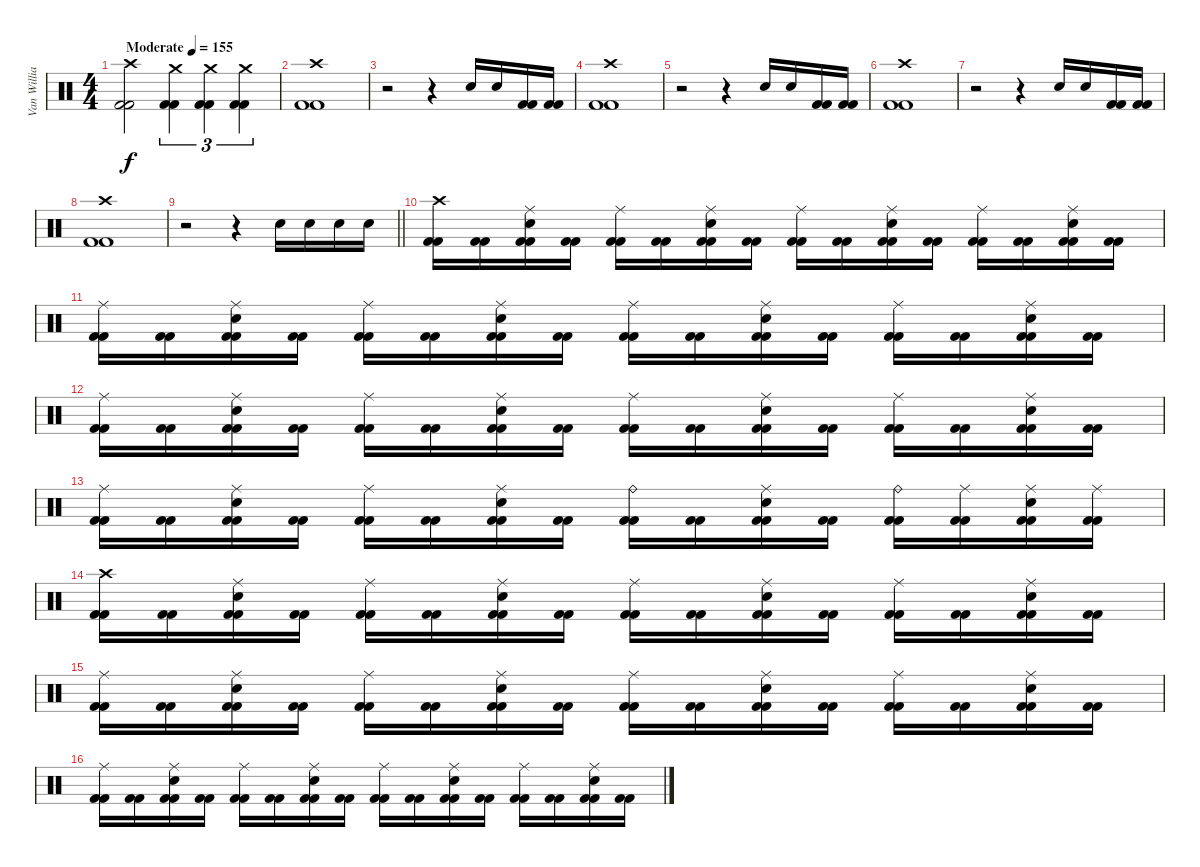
\track ("Van Williams" "Van Willia") {instrument percussion}
\staff {score}
\articulation defaults
\ts (4 4)
\tempo (155 "Moderate")
\clef neutral
\ks c
("Crash high (hit)" "Kick (hit) 2" "Kick (hit) 2").2{dy f} ("Crash medium (hit)" "Kick (hit) 2" "Kick (hit) 2").4{tu (3 2)} ("Crash medium (hit)" "Kick (hit) 2" "Kick (hit) 2").4{tu (3 2)} ("Crash medium (hit)" "Kick (hit) 2" "Kick (hit) 2").4{tu (3 2)} |
("Crash high (hit)" "Kick (hit) 2" "Kick (hit) 2").1 |
r.2 r.4 "Electric Snare (hit)".16 "Electric Snare (hit)".16 ("Kick (hit) 2" "Kick (hit) 2").16 ("Kick (hit) 2" "Kick (hit) 2").16 |
("Crash high (hit)" "Kick (hit) 2" "Kick (hit) 2").1 |
r.2 r.4 "Electric Snare (hit)".16 "Electric Snare (hit)".16 ("Kick (hit) 2" "Kick (hit) 2").16 ("Kick (hit) 2" "Kick (hit) 2").16 |
("Crash high (hit)" "Kick (hit) 2" "Kick (hit) 2").1 |
r.2 r.4 "Electric Snare (hit)".16 "Electric Snare (hit)".16 ("Kick (hit) 2" "Kick (hit) 2").16 ("Kick (hit) 2" "Kick (hit) 2").16 |
("Crash high (hit)" "Kick (hit) 2" "Kick (hit) 2").1 |
\barLineRight lightlight
r.2 r.4 "Electric Snare (hit)".16 "Electric Snare (hit)".16 "Electric Snare (hit)".16 "Electric Snare (hit)".16 |
("Crash high (hit)" "Kick (hit) 2" "Kick (hit) 2").16 ("Kick (hit) 2" "Kick (hit) 2").16 ("Ride (middle)" "Electric Snare (hit)" "Kick (hit) 2" "Kick (hit) 2").16 ("Kick (hit) 2" "Kick (hit) 2").16 ("Ride (middle)" "Kick (hit) 2" "Kick (hit) 2").16 ("Kick (hit) 2" "Kick (hit) 2").16 ("Ride (middle)" "Electric Snare (hit)" "Kick (hit) 2" "Kick (hit) 2").16 ("Kick (hit) 2" "Kick (hit) 2").16 ("Ride (middle)" "Kick (hit) 2" "Kick (hit) 2").16 ("Kick (hit) 2" "Kick (hit) 2").16 ("Ride (middle)" "Electric Snare (hit)" "Kick (hit) 2" "Kick (hit) 2").16 ("Kick (hit) 2" "Kick (hit) 2").16 ("Ride (middle)" "Kick (hit) 2" "Kick (hit) 2").16 ("Kick (hit) 2" "Kick (hit) 2").16 ("Ride (middle)" "Electric Snare (hit)" "Kick (hit) 2" "Kick (hit) 2").16 ("Kick (hit) 2" "Kick (hit) 2").16 |
("Ride (middle)" "Kick (hit) 2" "Kick (hit) 2").16 ("Kick (hit) 2" "Kick (hit) 2").16 ("Ride (middle)" "Electric Snare (hit)" "Kick (hit) 2" "Kick (hit) 2").16 ("Kick (hit) 2" "Kick (hit) 2").16 ("Ride (middle)" "Kick (hit) 2" "Kick (hit) 2").16 ("Kick (hit) 2" "Kick (hit) 2").16 ("Ride (middle)" "Electric Snare (hit)" "Kick (hit) 2" "Kick (hit) 2").16 ("Kick (hit) 2" "Kick (hit) 2").16 ("Ride (middle)" "Kick (hit) 2" "Kick (hit) 2").16 ("Kick (hit) 2" "Kick (hit) 2").16 ("Ride (middle)" "Electric Snare (hit)" "Kick (hit) 2" "Kick (hit) 2").16 ("Kick (hit) 2" "Kick (hit) 2").16 ("Ride (middle)" "Kick (hit) 2" "Kick (hit) 2").16 ("Kick (hit) 2" "Kick (hit) 2").16 ("Ride (middle)" "Electric Snare (hit)" "Kick (hit) 2" "Kick (hit) 2").16 ("Kick (hit) 2" "Kick (hit) 2").16 |
("Ride (middle)" "Kick (hit) 2" "Kick (hit) 2").16 ("Kick (hit) 2" "Kick (hit) 2").16 ("Ride (middle)" "Electric Snare (hit)" "Kick (hit) 2" "Kick (hit) 2").16 ("Kick (hit) 2" "Kick (hit) 2").16 ("Ride (middle)" "Kick (hit) 2" "Kick (hit) 2").16 ("Kick (hit) 2" "Kick (hit) 2").16 ("Ride (middle)" "Electric Snare (hit)" "Kick (hit) 2" "Kick (hit) 2").16 ("Kick (hit) 2" "Kick (hit) 2").16 ("Ride (middle)" "Kick (hit) 2" "Kick (hit) 2").16 ("Kick (hit) 2" "Kick (hit) 2").16 ("Ride (middle)" "Electric Snare (hit)" "Kick (hit) 2" "Kick (hit) 2").16 ("Kick (hit) 2" "Kick (hit) 2").16 ("Ride (middle)" "Kick (hit) 2" "Kick (hit) 2").16 ("Kick (hit) 2" "Kick (hit) 2").16 ("Ride (middle)" "Electric Snare (hit)" "Kick (hit) 2" "Kick (hit) 2").16 ("Kick (hit) 2" "Kick (hit) 2").16 |
("Ride (middle)" "Kick (hit) 2" "Kick (hit) 2").16 ("Kick (hit) 2" "Kick (hit) 2").16 ("Ride (middle)" "Electric Snare (hit)" "Kick (hit) 2" "Kick (hit) 2").16 ("Kick (hit) 2" "Kick (hit) 2").16 ("Ride (middle)" "Kick (hit) 2" "Kick (hit) 2").16 ("Kick (hit) 2" "Kick (hit) 2").16 ("Ride (middle)" "Electric Snare (hit)" "Kick (hit) 2" "Kick (hit) 2").16 ("Kick (hit) 2" "Kick (hit) 2").16 ("Ride (bell)" "Kick (hit) 2" "Kick (hit) 2").16 ("Kick (hit) 2" "Kick (hit) 2").16 ("Ride (middle)" "Electric Snare (hit)" "Kick (hit) 2" "Kick (hit) 2").16 ("Kick (hit) 2" "Kick (hit) 2").16 ("Ride (bell)" "Kick (hit) 2" "Kick (hit) 2").16 ("Ride (middle)" "Kick (hit) 2" "Kick (hit) 2").16 ("Ride (middle)" "Electric Snare (hit)" "Kick (hit) 2" "Kick (hit) 2").16 ("Ride (middle)" "Kick (hit) 2" "Kick (hit) 2").16 |
("Crash high (hit)" "Kick (hit) 2" "Kick (hit) 2").16 ("Kick (hit) 2" "Kick (hit) 2").16 ("Ride (middle)" "Electric Snare (hit)" "Kick (hit) 2" "Kick (hit) 2").16 ("Kick (hit) 2" "Kick (hit) 2").16 ("Ride (middle)" "Kick (hit) 2" "Kick (hit) 2").16 ("Kick (hit) 2" "Kick (hit) 2").16 ("Ride (middle)" "Electric Snare (hit)" "Kick (hit) 2" "Kick (hit) 2").16 ("Kick (hit) 2" "Kick (hit) 2").16 ("Ride (middle)" "Kick (hit) 2" "Kick (hit) 2").16 ("Kick (hit) 2" "Kick (hit) 2").16 ("Ride (middle)" "Electric Snare (hit)" "Kick (hit) 2" "Kick (hit) 2").16 ("Kick (hit) 2" "Kick (hit) 2").16 ("Ride (middle)" "Kick (hit) 2" "Kick (hit) 2").16 ("Kick (hit) 2" "Kick (hit) 2").16 ("Ride (middle)" "Electric Snare (hit)" "Kick (hit) 2" "Kick (hit) 2").16 ("Kick (hit) 2" "Kick (hit) 2").16 |
("Ride (middle)" "Kick (hit) 2" "Kick (hit) 2").16 ("Kick (hit) 2" "Kick (hit) 2").16 ("Ride (middle)" "Electric Snare (hit)" "Kick (hit) 2" "Kick (hit) 2").16 ("Kick (hit) 2" "Kick (hit) 2").16 ("Ride (middle)" "Kick (hit) 2" "Kick (hit) 2").16 ("Kick (hit) 2" "Kick (hit) 2").16 ("Ride (middle)" "Electric Snare (hit)" "Kick (hit) 2" "Kick (hit) 2").16 ("Kick (hit) 2" "Kick (hit) 2").16 ("Ride (middle)" "Kick (hit) 2" "Kick (hit) 2").16 ("Kick (hit) 2" "Kick (hit) 2").16 ("Ride (middle)" "Electric Snare (hit)" "Kick (hit) 2" "Kick (hit) 2").16 ("Kick (hit) 2" "Kick (hit) 2").16 ("Ride (middle)" "Kick (hit) 2" "Kick (hit) 2").16 ("Kick (hit) 2" "Kick (hit) 2").16 ("Ride (middle)" "Electric Snare (hit)" "Kick (hit) 2" "Kick (hit) 2").16 ("Kick (hit) 2" "Kick (hit) 2").16 |
("Ride (middle)" "Kick (hit) 2" "Kick (hit) 2").16 ("Kick (hit) 2" "Kick (hit) 2").16 ("Ride (middle)" "Electric Snare (hit)" "Kick (hit) 2" "Kick (hit) 2").16 ("Kick (hit) 2" "Kick (hit) 2").16 ("Ride (middle)" "Kick (hit) 2" "Kick (hit) 2").16 ("Kick (hit) 2" "Kick (hit) 2").16 ("Ride (middle)" "Electric Snare (hit)" "Kick (hit) 2" "Kick (hit) 2").16 ("Kick (hit) 2" "Kick (hit) 2").16 ("Ride (middle)" "Kick (hit) 2" "Kick (hit) 2").16 ("Kick (hit) 2" "Kick (hit) 2").16 ("Ride (middle)" "Electric Snare (hit)" "Kick (hit) 2" "Kick (hit) 2").16 ("Kick (hit) 2" "Kick (hit) 2").16 ("Ride (middle)" "Kick (hit) 2" "Kick (hit) 2").16 ("Kick (hit) 2" "Kick (hit) 2").16 ("Ride (middle)" "Electric Snare (hit)" "Kick (hit) 2" "Kick (hit) 2").16 ("Kick (hit) 2" "Kick (hit) 2").16
